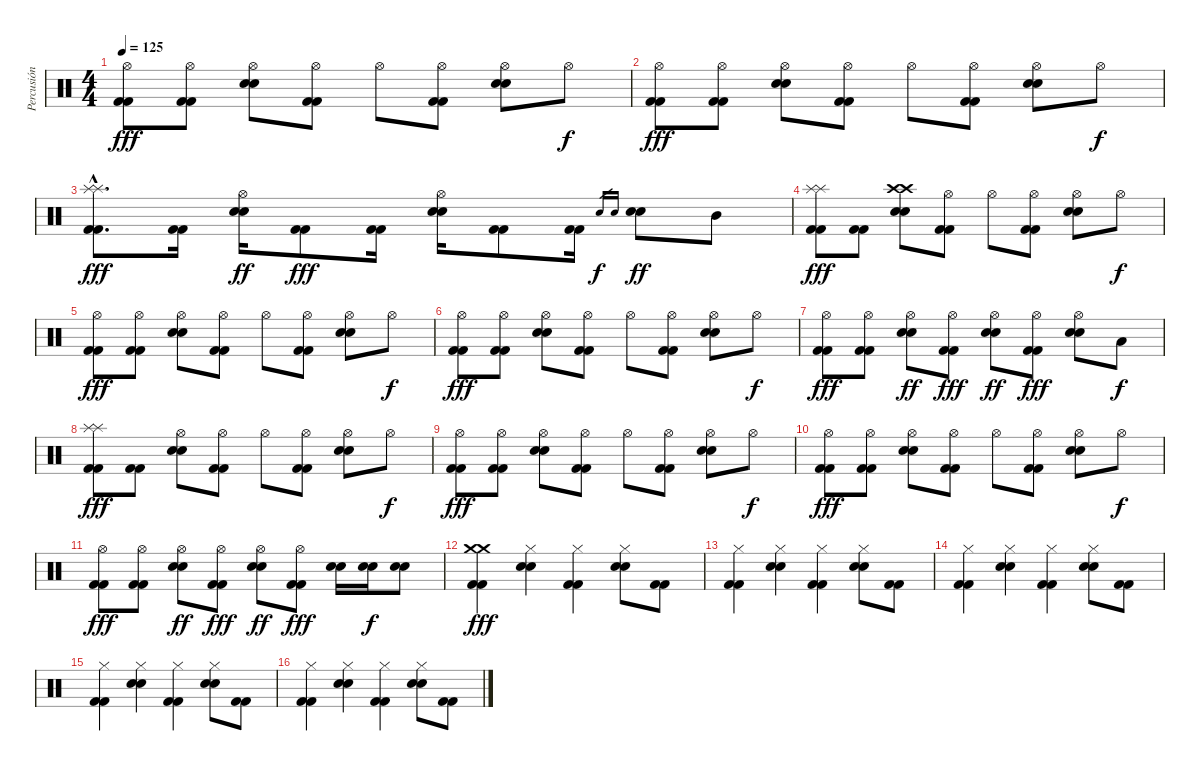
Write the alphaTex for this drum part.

\track ("Percusión" "Percusión") {instrument percussion}
\staff {score}
\articulation defaults
\ts (4 4)
\tempo 125
\clef neutral
\ks c
("Hi-Hat (open)" "Kick (hit) 2" "Kick (hit) 2").8{dy fff} ("Hi-Hat (open)" "Kick (hit) 2" "Kick (hit) 2").8 ("Hi-Hat (open)" "Electric Snare (hit)" "Electric Snare (hit)").8 ("Hi-Hat (open)" "Kick (hit) 2" "Kick (hit) 2").8 "Hi-Hat (open)".8 ("Hi-Hat (open)" "Kick (hit) 2" "Kick (hit) 2").8 ("Hi-Hat (open)" "Electric Snare (hit)" "Electric Snare (hit)").8 "Hi-Hat (open)".8{dy f} |
("Hi-Hat (open)" "Kick (hit) 2" "Kick (hit) 2").8{dy fff} ("Hi-Hat (open)" "Kick (hit) 2" "Kick (hit) 2").8 ("Hi-Hat (open)" "Electric Snare (hit)" "Electric Snare (hit)").8 ("Hi-Hat (open)" "Kick (hit) 2" "Kick (hit) 2").8 "Hi-Hat (open)".8 ("Hi-Hat (open)" "Kick (hit) 2" "Kick (hit) 2").8 ("Hi-Hat (open)" "Electric Snare (hit)" "Electric Snare (hit)").8 "Hi-Hat (open)".8{dy f} |
("Splash (hit)"{hac} "Splash (hit)"{hac} "Kick (hit) 2"{hac} "Kick (hit) 2"{hac}).8{d dy fff} ("Kick (hit) 2" "Kick (hit) 2").16 ("Hi-Hat (open)" "Electric Snare (hit)" "Electric Snare (hit)").16{dy ff} ("Kick (hit) 2" "Kick (hit) 2").8{dy fff} ("Kick (hit) 2" "Kick (hit) 2").16 ("Hi-Hat (open)" "Electric Snare (hit)" "Electric Snare (hit)").16 ("Kick (hit) 2" "Kick (hit) 2").8 ("Kick (hit) 2" "Kick (hit) 2").16 "Electric Snare (hit)".16{gr dy f} "Electric Snare (hit)".16{gr} ("Electric Snare (hit)" "Electric Snare (hit)").8{dy ff} "Mid Tom (hit)".8 |
("Splash (hit)" "Splash (hit)" "Kick (hit) 2" "Kick (hit) 2").8{dy fff} ("Kick (hit) 2" "Kick (hit) 2").8 ("Crash high (hit)" "Crash high (hit)" "Electric Snare (hit)" "Electric Snare (hit)").8 ("Hi-Hat (open)" "Kick (hit) 2" "Kick (hit) 2").8 "Hi-Hat (open)".8 ("Hi-Hat (open)" "Kick (hit) 2" "Kick (hit) 2").8 ("Hi-Hat (open)" "Electric Snare (hit)" "Electric Snare (hit)").8 "Hi-Hat (open)".8{dy f} |
("Hi-Hat (open)" "Kick (hit) 2" "Kick (hit) 2").8{dy fff} ("Hi-Hat (open)" "Kick (hit) 2" "Kick (hit) 2").8 ("Hi-Hat (open)" "Electric Snare (hit)" "Electric Snare (hit)").8 ("Hi-Hat (open)" "Kick (hit) 2" "Kick (hit) 2").8 "Hi-Hat (open)".8 ("Hi-Hat (open)" "Kick (hit) 2" "Kick (hit) 2").8 ("Hi-Hat (open)" "Electric Snare (hit)" "Electric Snare (hit)").8 "Hi-Hat (open)".8{dy f} |
("Hi-Hat (open)" "Kick (hit) 2" "Kick (hit) 2").8{dy fff} ("Hi-Hat (open)" "Kick (hit) 2" "Kick (hit) 2").8 ("Hi-Hat (open)" "Electric Snare (hit)" "Electric Snare (hit)").8 ("Hi-Hat (open)" "Kick (hit) 2" "Kick (hit) 2").8 "Hi-Hat (open)".8 ("Hi-Hat (open)" "Kick (hit) 2" "Kick (hit) 2").8 ("Hi-Hat (open)" "Electric Snare (hit)" "Electric Snare (hit)").8 "Hi-Hat (open)".8{dy f} |
("Hi-Hat (open)" "Kick (hit) 2" "Kick (hit) 2").8{dy fff} ("Hi-Hat (open)" "Kick (hit) 2" "Kick (hit) 2").8 ("Hi-Hat (open)" "Electric Snare (hit)" "Electric Snare (hit)").8{dy ff} ("Hi-Hat (open)" "Kick (hit) 2" "Kick (hit) 2").8{dy fff} ("Hi-Hat (open)" "Electric Snare (hit)" "Electric Snare (hit)").8{dy ff} ("Hi-Hat (open)" "Kick (hit) 2" "Kick (hit) 2").8{dy fff} ("Hi-Hat (open)" "Electric Snare (hit)" "Electric Snare (hit)").8 "Low Tom (hit)".8{dy f} |
("Splash (hit)" "Splash (hit)" "Kick (hit) 2" "Kick (hit) 2").8{dy fff} ("Kick (hit) 2" "Kick (hit) 2").8 ("Hi-Hat (open)" "Electric Snare (hit)" "Electric Snare (hit)").8 ("Hi-Hat (open)" "Kick (hit) 2" "Kick (hit) 2").8 "Hi-Hat (open)".8 ("Hi-Hat (open)" "Kick (hit) 2" "Kick (hit) 2").8 ("Hi-Hat (open)" "Electric Snare (hit)" "Electric Snare (hit)").8 "Hi-Hat (open)".8{dy f} |
("Hi-Hat (open)" "Kick (hit) 2" "Kick (hit) 2").8{dy fff} ("Hi-Hat (open)" "Kick (hit) 2" "Kick (hit) 2").8 ("Hi-Hat (open)" "Electric Snare (hit)" "Electric Snare (hit)").8 ("Hi-Hat (open)" "Kick (hit) 2" "Kick (hit) 2").8 "Hi-Hat (open)".8 ("Hi-Hat (open)" "Kick (hit) 2" "Kick (hit) 2").8 ("Hi-Hat (open)" "Electric Snare (hit)" "Electric Snare (hit)").8 "Hi-Hat (open)".8{dy f} |
("Hi-Hat (open)" "Kick (hit) 2" "Kick (hit) 2").8{dy fff} ("Hi-Hat (open)" "Kick (hit) 2" "Kick (hit) 2").8 ("Hi-Hat (open)" "Electric Snare (hit)" "Electric Snare (hit)").8 ("Hi-Hat (open)" "Kick (hit) 2" "Kick (hit) 2").8 "Hi-Hat (open)".8 ("Hi-Hat (open)" "Kick (hit) 2" "Kick (hit) 2").8 ("Hi-Hat (open)" "Electric Snare (hit)" "Electric Snare (hit)").8 "Hi-Hat (open)".8{dy f} |
("Hi-Hat (open)" "Kick (hit) 2" "Kick (hit) 2").8{dy fff} ("Hi-Hat (open)" "Kick (hit) 2" "Kick (hit) 2").8 ("Hi-Hat (open)" "Electric Snare (hit)" "Electric Snare (hit)").8{dy ff} ("Hi-Hat (open)" "Kick (hit) 2" "Kick (hit) 2").8{dy fff} ("Hi-Hat (open)" "Electric Snare (hit)" "Electric Snare (hit)").8{dy ff} ("Hi-Hat (open)" "Kick (hit) 2" "Kick (hit) 2").8{dy fff} ("Electric Snare (hit)" "Electric Snare (hit)").16 ("Electric Snare (hit)" "Electric Snare (hit)").16{dy f} ("Electric Snare (hit)" "Electric Snare (hit)").8 |
("Crash medium (hit)" "Crash medium (hit)" "Kick (hit) 2" "Kick (hit) 2").4{dy fff} ("Hi-Hat (closed)" "Electric Snare (hit)" "Electric Snare (hit)").4 ("Hi-Hat (closed)" "Kick (hit) 2" "Kick (hit) 2").4 ("Hi-Hat (closed)" "Electric Snare (hit)" "Electric Snare (hit)").8 ("Kick (hit) 2" "Kick (hit) 2").8 |
("Hi-Hat (closed)" "Kick (hit) 2" "Kick (hit) 2").4 ("Hi-Hat (closed)" "Electric Snare (hit)" "Electric Snare (hit)").4 ("Hi-Hat (closed)" "Kick (hit) 2" "Kick (hit) 2").4 ("Hi-Hat (closed)" "Electric Snare (hit)" "Electric Snare (hit)").8 ("Kick (hit) 2" "Kick (hit) 2").8 |
("Hi-Hat (closed)" "Kick (hit) 2" "Kick (hit) 2").4 ("Hi-Hat (closed)" "Electric Snare (hit)" "Electric Snare (hit)").4 ("Hi-Hat (closed)" "Kick (hit) 2" "Kick (hit) 2").4 ("Hi-Hat (closed)" "Electric Snare (hit)" "Electric Snare (hit)").8 ("Kick (hit) 2" "Kick (hit) 2").8 |
("Hi-Hat (closed)" "Kick (hit) 2" "Kick (hit) 2").4 ("Hi-Hat (closed)" "Electric Snare (hit)" "Electric Snare (hit)").4 ("Hi-Hat (closed)" "Kick (hit) 2" "Kick (hit) 2").4 ("Hi-Hat (closed)" "Electric Snare (hit)" "Electric Snare (hit)").8 ("Kick (hit) 2" "Kick (hit) 2").8 |
("Hi-Hat (closed)" "Kick (hit) 2" "Kick (hit) 2").4 ("Hi-Hat (closed)" "Electric Snare (hit)" "Electric Snare (hit)").4 ("Hi-Hat (closed)" "Kick (hit) 2" "Kick (hit) 2").4 ("Hi-Hat (closed)" "Electric Snare (hit)" "Electric Snare (hit)").8 ("Kick (hit) 2" "Kick (hit) 2").8
